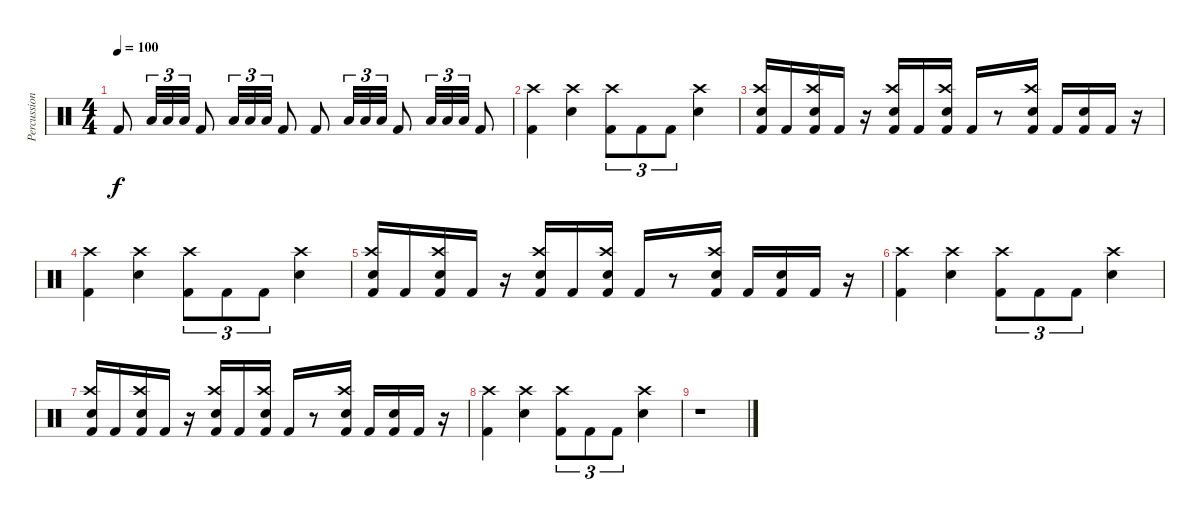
\track ("Percussion" "Percussion") {instrument percussion}
\staff {score}
\articulation defaults
\ts (4 4)
\tempo 100
\clef neutral
\ks c "Kick (hit) 2".8{dy f} "Low Tom (hit)".32{tu (3 2)} "Low Tom (hit)".32{tu (3 2)} "Low Tom (hit)".32{tu (3 2)} "Kick (hit) 2".8 "Low Tom (hit)".32{tu (3 2)} "Low Tom (hit)".32{tu (3 2)} "Low Tom (hit)".32{tu (3 2)} "Kick (hit) 2".8 "Kick (hit) 2".8 "Low Tom (hit)".32{tu (3 2)} "Low Tom (hit)".32{tu (3 2)} "Low Tom (hit)".32{tu (3 2)} "Kick (hit) 2".8 "Low Tom (hit)".32{tu (3 2)} "Low Tom (hit)".32{tu (3 2)} "Low Tom (hit)".32{tu (3 2)} "Kick (hit) 2".8
|
("Crash high (hit)" "Kick (hit) 2").4 ("Crash high (hit)" "Snare (hit) 2").4 ("Crash high (hit)" "Kick (hit) 2").8{tu (3 2)} "Kick (hit) 2".8{tu (3 2)} "Kick (hit) 2".8{tu (3 2)} ("Crash high (hit)" "Snare (hit) 2").4 |
("Crash high (hit)" "Snare (hit) 2" "Kick (hit) 2").16 "Kick (hit) 2".16 ("Crash high (hit)" "Snare (hit) 2" "Kick (hit) 2").16 "Kick (hit) 2".16 r.16 ("Crash high (hit)" "Snare (hit) 2" "Kick (hit) 2").16 "Kick (hit) 2".16 ("Crash high (hit)" "Snare (hit) 2" "Kick (hit) 2").16 "Kick (hit) 2".16 r.8 ("Crash high (hit)" "Snare (hit) 2" "Kick (hit) 2").16 "Kick (hit) 2".16 ("Snare (hit) 2" "Kick (hit) 2").16 "Kick (hit) 2".16 r.16 |
("Crash high (hit)" "Kick (hit) 2").4 ("Crash high (hit)" "Snare (hit) 2").4 ("Crash high (hit)" "Kick (hit) 2").8{tu (3 2)} "Kick (hit) 2".8{tu (3 2)} "Kick (hit) 2".8{tu (3 2)} ("Crash high (hit)" "Snare (hit) 2").4 |
("Crash high (hit)" "Snare (hit) 2" "Kick (hit) 2").16 "Kick (hit) 2".16 ("Crash high (hit)" "Snare (hit) 2" "Kick (hit) 2").16 "Kick (hit) 2".16 r.16 ("Crash high (hit)" "Snare (hit) 2" "Kick (hit) 2").16 "Kick (hit) 2".16 ("Crash high (hit)" "Snare (hit) 2" "Kick (hit) 2").16 "Kick (hit) 2".16 r.8 ("Crash high (hit)" "Snare (hit) 2" "Kick (hit) 2").16 "Kick (hit) 2".16 ("Snare (hit) 2" "Kick (hit) 2").16 "Kick (hit) 2".16 r.16 |
("Crash high (hit)" "Kick (hit) 2").4 ("Crash high (hit)" "Snare (hit) 2").4 ("Crash high (hit)" "Kick (hit) 2").8{tu (3 2)} "Kick (hit) 2".8{tu (3 2)} "Kick (hit) 2".8{tu (3 2)} ("Crash high (hit)" "Snare (hit) 2").4 |
("Crash high (hit)" "Snare (hit) 2" "Kick (hit) 2").16 "Kick (hit) 2".16 ("Crash high (hit)" "Snare (hit) 2" "Kick (hit) 2").16 "Kick (hit) 2".16 r.16 ("Crash high (hit)" "Snare (hit) 2" "Kick (hit) 2").16 "Kick (hit) 2".16 ("Crash high (hit)" "Snare (hit) 2" "Kick (hit) 2").16 "Kick (hit) 2".16 r.8 ("Crash high (hit)" "Snare (hit) 2" "Kick (hit) 2").16 "Kick (hit) 2".16 ("Snare (hit) 2" "Kick (hit) 2").16 "Kick (hit) 2".16 r.16 |
("Crash high (hit)" "Kick (hit) 2").4 ("Crash high (hit)" "Snare (hit) 2").4 ("Crash high (hit)" "Kick (hit) 2").8{tu (3 2)} "Kick (hit) 2".8{tu (3 2)} "Kick (hit) 2".8{tu (3 2)} ("Crash high (hit)" "Snare (hit) 2").4 |
r.1
